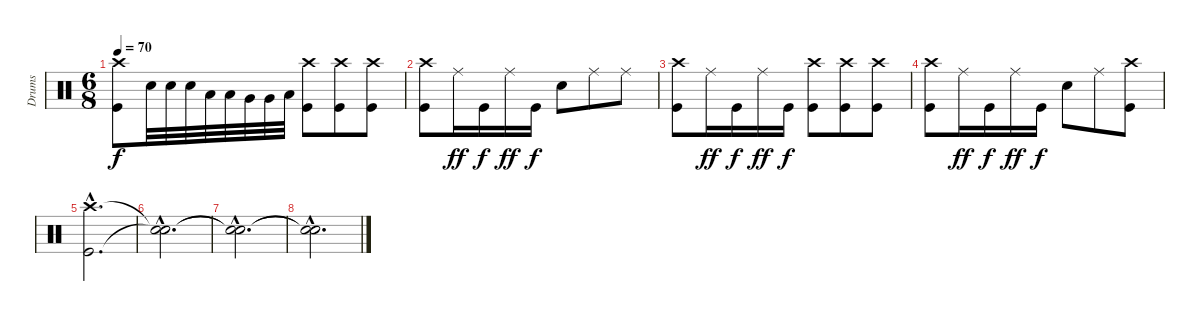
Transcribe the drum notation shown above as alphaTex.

\track ("Drums" "Drums") {instrument percussion}
\staff {score}
\articulation defaults
\ts (6 8)
\tempo 70
\clef neutral
\ks c
("Crash high (hit)" "Kick (hit)").8{dy f} "Snare (hit) 2".32 "Snare (hit) 2".32 "Snare (hit) 2".32 "Low Tom (hit)".32 "Low Tom (hit)".32 "Very Low Tom (hit)".32 "Very Low Tom (hit)".32 "Low Floor Tom (hit)".32 ("Crash high (hit)" "Kick (hit)").8 ("Crash high (hit)" "Kick (hit)").8 ("Crash high (hit)" "Kick (hit)").8 |
("Crash high (hit)" "Kick (hit)").8 "Ride (middle)".16{dy ff} "Kick (hit)".16{dy f} "Ride (middle)".16{dy ff} "Kick (hit)".16{dy f} "Snare (hit) 2".8 "Ride (middle)".8 "Ride (middle)".8 |
("Crash high (hit)" "Kick (hit)").8 "Ride (middle)".16{dy ff} "Kick (hit)".16{dy f} "Ride (middle)".16{dy ff} "Kick (hit)".16{dy f} ("Crash high (hit)" "Kick (hit)").8 ("Crash high (hit)" "Kick (hit)").8 ("Crash high (hit)" "Kick (hit)").8 |
("Crash high (hit)" "Kick (hit)").8 "Ride (middle)".16{dy ff} "Kick (hit)".16{dy f} "Ride (middle)".16{dy ff} "Kick (hit)".16{dy f} "Snare (hit) 2".8 "Ride (middle)".8 ("Crash high (hit)" "Kick (hit)").8 |
("Crash high (hit)"{hac} "Kick (hit)"{hac}).2{d} |
("Snare (hit)"{hac t} "Snare (hit)"{hac t}).2{d} |
("Snare (hit)"{hac t} "Snare (hit)"{hac t}).2{d} |
("Snare (hit)"{hac t} "Snare (hit)"{hac t}).2{d}
